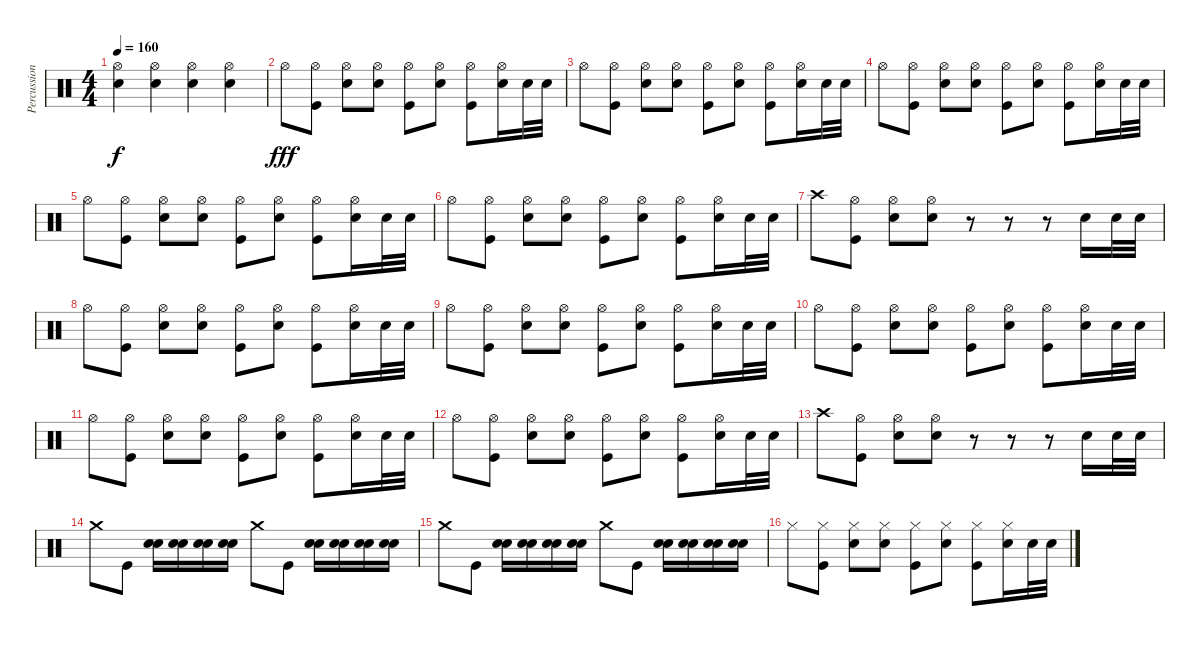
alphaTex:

\track ("Percussion" "Percussion") {instrument percussion}
\staff {score}
\articulation defaults
\ts (4 4)
\tempo 160
\clef neutral
\ks c
("Hi-Hat (open)" "Hand Clap (hit)").4{dy f} ("Hi-Hat (open)" "Hand Clap (hit)").4 ("Hi-Hat (open)" "Hand Clap (hit)").4 ("Hi-Hat (open)" "Hand Clap (hit)").4 |
"Hi-Hat (open)".8{dy fff} ("Kick (hit)" "Hi-Hat (open)").8 ("Snare (hit) 2" "Hi-Hat (open)").8 ("Snare (hit) 2" "Hi-Hat (open)").8 ("Kick (hit)" "Hi-Hat (open)").8 ("Snare (hit) 2" "Hi-Hat (open)").8 ("Kick (hit)" "Hi-Hat (open)").8 ("Snare (hit) 2" "Hi-Hat (open)").16 "Snare (hit) 2".32 "Snare (hit) 2".32 |
"Hi-Hat (open)".8 ("Kick (hit)" "Hi-Hat (open)").8 ("Snare (hit) 2" "Hi-Hat (open)").8 ("Snare (hit) 2" "Hi-Hat (open)").8 ("Kick (hit)" "Hi-Hat (open)").8 ("Snare (hit) 2" "Hi-Hat (open)").8 ("Kick (hit)" "Hi-Hat (open)").8 ("Snare (hit) 2" "Hi-Hat (open)").16 "Snare (hit) 2".32 "Snare (hit) 2".32 |
"Hi-Hat (open)".8 ("Kick (hit)" "Hi-Hat (open)").8 ("Snare (hit) 2" "Hi-Hat (open)").8 ("Snare (hit) 2" "Hi-Hat (open)").8 ("Kick (hit)" "Hi-Hat (open)").8 ("Snare (hit) 2" "Hi-Hat (open)").8 ("Kick (hit)" "Hi-Hat (open)").8 ("Snare (hit) 2" "Hi-Hat (open)").16 "Snare (hit) 2".32 "Snare (hit) 2".32 |
"Hi-Hat (open)".8 ("Kick (hit)" "Hi-Hat (open)").8 ("Snare (hit) 2" "Hi-Hat (open)").8 ("Snare (hit) 2" "Hi-Hat (open)").8 ("Kick (hit)" "Hi-Hat (open)").8 ("Snare (hit) 2" "Hi-Hat (open)").8 ("Kick (hit)" "Hi-Hat (open)").8 ("Snare (hit) 2" "Hi-Hat (open)").16 "Snare (hit) 2".32 "Snare (hit) 2".32 |
"Hi-Hat (open)".8 ("Kick (hit)" "Hi-Hat (open)").8 ("Snare (hit) 2" "Hi-Hat (open)").8 ("Snare (hit) 2" "Hi-Hat (open)").8 ("Kick (hit)" "Hi-Hat (open)").8 ("Snare (hit) 2" "Hi-Hat (open)").8 ("Kick (hit)" "Hi-Hat (open)").8 ("Snare (hit) 2" "Hi-Hat (open)").16 "Snare (hit) 2".32 "Snare (hit) 2".32 |
"Crash high (hit)".8 ("Kick (hit)" "Hi-Hat (open)").8 ("Snare (hit) 2" "Hi-Hat (open)").8 ("Snare (hit) 2" "Hi-Hat (open)").8 r.8 r.8 r.8 "Snare (hit) 2".16 "Snare (hit) 2".32 "Snare (hit) 2".32 |
"Hi-Hat (open)".8 ("Kick (hit)" "Hi-Hat (open)").8 ("Snare (hit) 2" "Hi-Hat (open)").8 ("Snare (hit) 2" "Hi-Hat (open)").8 ("Kick (hit)" "Hi-Hat (open)").8 ("Snare (hit) 2" "Hi-Hat (open)").8 ("Kick (hit)" "Hi-Hat (open)").8 ("Snare (hit) 2" "Hi-Hat (open)").16 "Snare (hit) 2".32 "Snare (hit) 2".32 |
"Hi-Hat (open)".8 ("Kick (hit)" "Hi-Hat (open)").8 ("Snare (hit) 2" "Hi-Hat (open)").8 ("Snare (hit) 2" "Hi-Hat (open)").8 ("Kick (hit)" "Hi-Hat (open)").8 ("Snare (hit) 2" "Hi-Hat (open)").8 ("Kick (hit)" "Hi-Hat (open)").8 ("Snare (hit) 2" "Hi-Hat (open)").16 "Snare (hit) 2".32 "Snare (hit) 2".32 |
"Hi-Hat (open)".8 ("Kick (hit)" "Hi-Hat (open)").8 ("Snare (hit) 2" "Hi-Hat (open)").8 ("Snare (hit) 2" "Hi-Hat (open)").8 ("Kick (hit)" "Hi-Hat (open)").8 ("Snare (hit) 2" "Hi-Hat (open)").8 ("Kick (hit)" "Hi-Hat (open)").8 ("Snare (hit) 2" "Hi-Hat (open)").16 "Snare (hit) 2".32 "Snare (hit) 2".32 |
"Hi-Hat (open)".8 ("Kick (hit)" "Hi-Hat (open)").8 ("Snare (hit) 2" "Hi-Hat (open)").8 ("Snare (hit) 2" "Hi-Hat (open)").8 ("Kick (hit)" "Hi-Hat (open)").8 ("Snare (hit) 2" "Hi-Hat (open)").8 ("Kick (hit)" "Hi-Hat (open)").8 ("Snare (hit) 2" "Hi-Hat (open)").16 "Snare (hit) 2".32 "Snare (hit) 2".32 |
"Hi-Hat (open)".8 ("Kick (hit)" "Hi-Hat (open)").8 ("Snare (hit) 2" "Hi-Hat (open)").8 ("Snare (hit) 2" "Hi-Hat (open)").8 ("Kick (hit)" "Hi-Hat (open)").8 ("Snare (hit) 2" "Hi-Hat (open)").8 ("Kick (hit)" "Hi-Hat (open)").8 ("Snare (hit) 2" "Hi-Hat (open)").16 "Snare (hit) 2".32 "Snare (hit) 2".32 |
"Crash high (hit)".8 ("Kick (hit)" "Hi-Hat (open)").8 ("Snare (hit) 2" "Hi-Hat (open)").8 ("Snare (hit) 2" "Hi-Hat (open)").8 r.8 r.8 r.8 "Snare (hit) 2".16 "Snare (hit) 2".32 "Snare (hit) 2".32 |
"Crash medium (hit)".8 "Kick (hit)".8 ("Snare (hit) 2" "Snare (hit) 2").16 ("Snare (hit) 2" "Snare (hit) 2").16 ("Snare (hit) 2" "Snare (hit) 2").16 ("Snare (hit) 2" "Snare (hit) 2").16 "Crash medium (hit)".8 "Kick (hit)".8 ("Snare (hit) 2" "Snare (hit) 2").16 ("Snare (hit) 2" "Snare (hit) 2").16 ("Snare (hit) 2" "Snare (hit) 2").16 ("Snare (hit) 2" "Snare (hit) 2").16 |
"Crash medium (hit)".8 "Kick (hit)".8 ("Snare (hit) 2" "Snare (hit) 2").16 ("Snare (hit) 2" "Snare (hit) 2").16 ("Snare (hit) 2" "Snare (hit) 2").16 ("Snare (hit) 2" "Snare (hit) 2").16 "Crash medium (hit)".8 "Kick (hit)".8 ("Snare (hit) 2" "Snare (hit) 2").16 ("Snare (hit) 2" "Snare (hit) 2").16 ("Snare (hit) 2" "Snare (hit) 2").16 ("Snare (hit) 2" "Snare (hit) 2").16 |
"Hi-Hat (closed)".8 ("Kick (hit)" "Hi-Hat (closed)").8 ("Snare (hit) 2" "Hi-Hat (closed)").8 ("Snare (hit) 2" "Hi-Hat (closed)").8 ("Kick (hit)" "Hi-Hat (closed)").8 ("Snare (hit) 2" "Hi-Hat (closed)").8 ("Kick (hit)" "Hi-Hat (closed)").8 ("Snare (hit) 2" "Hi-Hat (closed)").16 "Snare (hit) 2".32 "Snare (hit) 2".32
